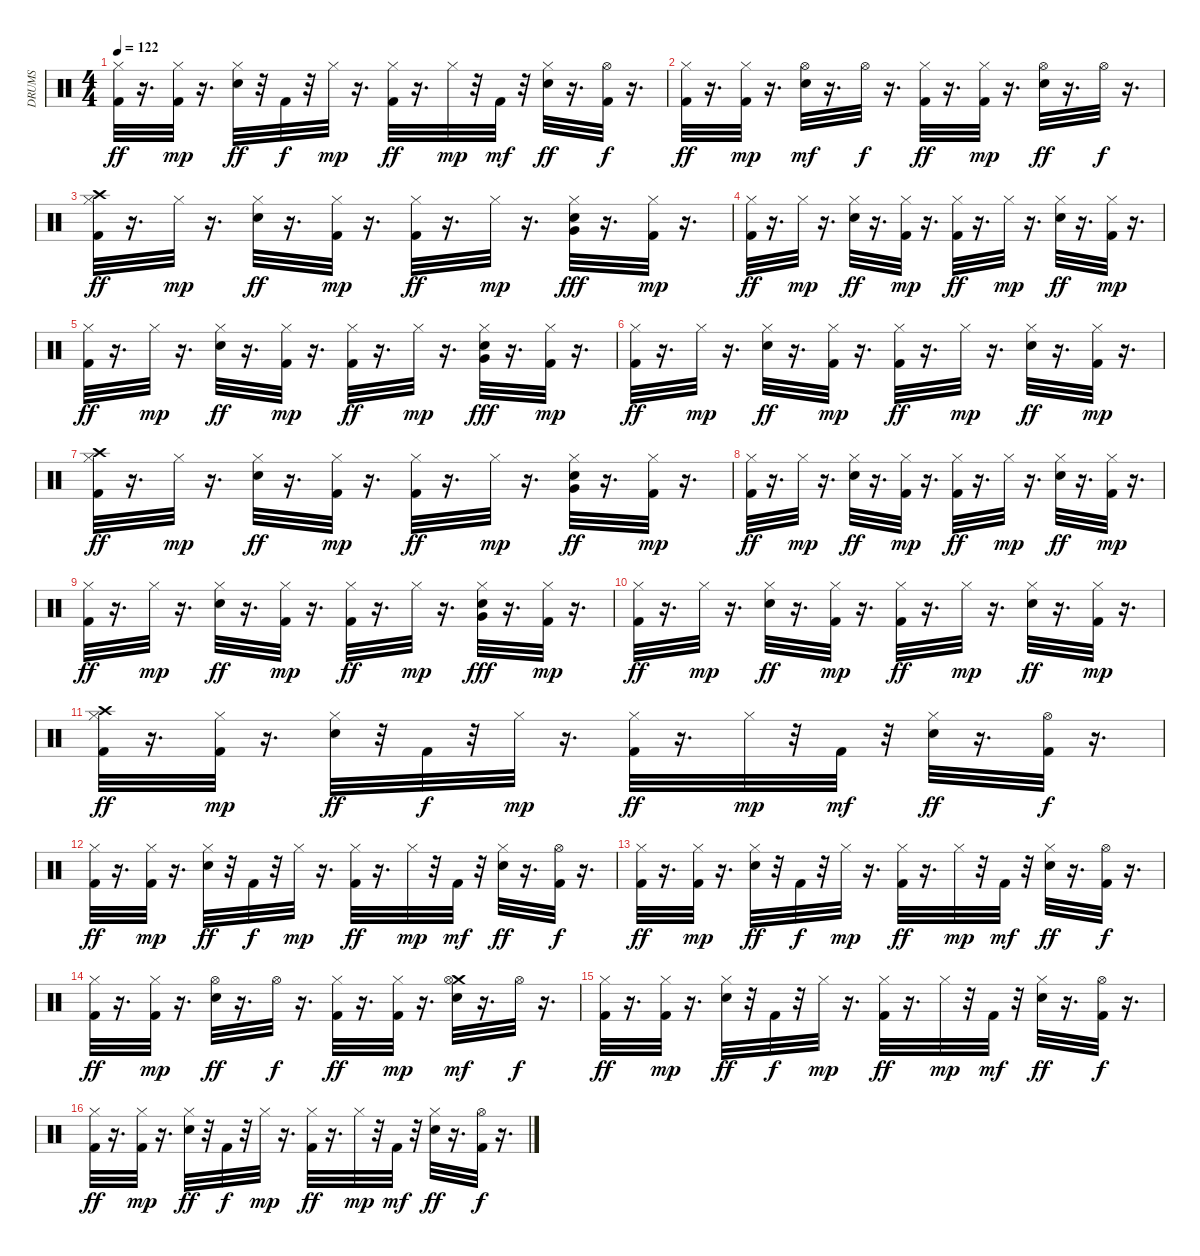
\track ("DRUMS" "DRUMS") {instrument percussion}
\staff {score}
\articulation defaults
\ts (4 4)
\tempo 122
\clef neutral
\ks c
("Hi-Hat (closed)" "Kick (hit) 2").32{dy ff} r.16{d} ("Hi-Hat (closed)" "Kick (hit) 2").32{dy mp} r.16{d} ("Snare (hit) 2" "Hi-Hat (closed)").32{dy ff} r.32 "Kick (hit) 2".32{dy f} r.32 "Hi-Hat (closed)".32{dy mp} r.16{d} ("Hi-Hat (closed)" "Kick (hit) 2").32{dy ff} r.16{d} "Hi-Hat (closed)".32{dy mp} r.32 "Kick (hit) 2".32{dy mf} r.32 ("Hi-Hat (closed)" "Snare (hit) 2").32{dy ff} r.16{d} ("Kick (hit) 2" "Hi-Hat (open)").32{dy f} r.16{d} |
("Hi-Hat (closed)" "Kick (hit) 2").32{dy ff} r.16{d} ("Kick (hit) 2" "Hi-Hat (closed)").32{dy mp} r.16{d} ("Snare (hit) 2" "Hi-Hat (open)").32{dy mf} r.16{d} "Hi-Hat (open)".32{dy f} r.16{d} ("Hi-Hat (closed)" "Kick (hit) 2").32{dy ff} r.16{d} ("Kick (hit) 2" "Hi-Hat (closed)").32{dy mp} r.16{d} ("Hi-Hat (open)" "Snare (hit) 2").32{dy ff} r.16{d} "Hi-Hat (open)".32{dy f} r.16{d} |
("Kick (hit) 2" "Crash high (hit)" "Hi-Hat (closed)").32{dy ff} r.16{d} "Hi-Hat (closed)".32{dy mp} r.16{d} ("Snare (hit) 2" "Hi-Hat (closed)").32{dy ff} r.16{d} ("Hi-Hat (closed)" "Kick (hit) 2").32{dy mp} r.16{d} ("Hi-Hat (closed)" "Kick (hit) 2").32{dy ff} r.16{d} "Hi-Hat (closed)".32{dy mp} r.16{d} ("Snare (hit) 2" "Very Low Tom (hit)" "Hi-Hat (closed)").32{dy fff} r.16{d} ("Hi-Hat (closed)" "Kick (hit) 2").32{dy mp} r.16{d} |
("Hi-Hat (closed)" "Kick (hit) 2").32{dy ff} r.16{d} "Hi-Hat (closed)".32{dy mp} r.16{d} ("Hi-Hat (closed)" "Snare (hit) 2").32{dy ff} r.16{d} ("Hi-Hat (closed)" "Kick (hit) 2").32{dy mp} r.16{d} ("Kick (hit) 2" "Hi-Hat (closed)").32{dy ff} r.16{d} "Hi-Hat (closed)".32{dy mp} r.16{d} ("Snare (hit) 2" "Hi-Hat (closed)").32{dy ff} r.16{d} ("Hi-Hat (closed)" "Kick (hit) 2").32{dy mp} r.16{d} |
("Hi-Hat (closed)" "Kick (hit) 2").32{dy ff} r.16{d} "Hi-Hat (closed)".32{dy mp} r.16{d} ("Hi-Hat (closed)" "Snare (hit) 2").32{dy ff} r.16{d} ("Hi-Hat (closed)" "Kick (hit) 2").32{dy mp} r.16{d} ("Hi-Hat (closed)" "Kick (hit) 2").32{dy ff} r.16{d} "Hi-Hat (closed)".32{dy mp} r.16{d} ("Snare (hit) 2" "Hi-Hat (closed)" "Very Low Tom (hit)").32{dy fff} r.16{d} ("Hi-Hat (closed)" "Kick (hit) 2").32{dy mp} r.16{d} |
("Kick (hit) 2" "Hi-Hat (closed)").32{dy ff} r.16{d} "Hi-Hat (closed)".32{dy mp} r.16{d} ("Hi-Hat (closed)" "Snare (hit) 2").32{dy ff} r.16{d} ("Hi-Hat (closed)" "Kick (hit) 2").32{dy mp} r.16{d} ("Hi-Hat (closed)" "Kick (hit) 2").32{dy ff} r.16{d} "Hi-Hat (closed)".32{dy mp} r.16{d} ("Hi-Hat (closed)" "Snare (hit) 2").32{dy ff} r.16{d} ("Kick (hit) 2" "Hi-Hat (closed)").32{dy mp} r.16{d} |
("Crash high (hit)" "Hi-Hat (closed)" "Kick (hit) 2").32{dy ff} r.16{d} "Hi-Hat (closed)".32{dy mp} r.16{d} ("Snare (hit) 2" "Hi-Hat (closed)").32{dy ff} r.16{d} ("Hi-Hat (closed)" "Kick (hit) 2").32{dy mp} r.16{d} ("Kick (hit) 2" "Hi-Hat (closed)").32{dy ff} r.16{d} "Hi-Hat (closed)".32{dy mp} r.16{d} ("Very Low Tom (hit)" "Hi-Hat (closed)" "Snare (hit) 2").32{dy ff} r.16{d} ("Kick (hit) 2" "Hi-Hat (closed)").32{dy mp} r.16{d} |
("Hi-Hat (closed)" "Kick (hit) 2").32{dy ff} r.16{d} "Hi-Hat (closed)".32{dy mp} r.16{d} ("Hi-Hat (closed)" "Snare (hit) 2").32{dy ff} r.16{d} ("Kick (hit) 2" "Hi-Hat (closed)").32{dy mp} r.16{d} ("Hi-Hat (closed)" "Kick (hit) 2").32{dy ff} r.16{d} "Hi-Hat (closed)".32{dy mp} r.16{d} ("Snare (hit) 2" "Hi-Hat (closed)").32{dy ff} r.16{d} ("Hi-Hat (closed)" "Kick (hit) 2").32{dy mp} r.16{d} |
("Hi-Hat (closed)" "Kick (hit) 2").32{dy ff} r.16{d} "Hi-Hat (closed)".32{dy mp} r.16{d} ("Snare (hit) 2" "Hi-Hat (closed)").32{dy ff} r.16{d} ("Kick (hit) 2" "Hi-Hat (closed)").32{dy mp} r.16{d} ("Hi-Hat (closed)" "Kick (hit) 2").32{dy ff} r.16{d} "Hi-Hat (closed)".32{dy mp} r.16{d} ("Snare (hit) 2" "Hi-Hat (closed)" "Very Low Tom (hit)").32{dy fff} r.16{d} ("Kick (hit) 2" "Hi-Hat (closed)").32{dy mp} r.16{d} |
("Kick (hit) 2" "Hi-Hat (closed)").32{dy ff} r.16{d} "Hi-Hat (closed)".32{dy mp} r.16{d} ("Hi-Hat (closed)" "Snare (hit) 2").32{dy ff} r.16{d} ("Hi-Hat (closed)" "Kick (hit) 2").32{dy mp} r.16{d} ("Kick (hit) 2" "Hi-Hat (closed)").32{dy ff} r.16{d} "Hi-Hat (closed)".32{dy mp} r.16{d} ("Snare (hit) 2" "Hi-Hat (closed)").32{dy ff} r.16{d} ("Kick (hit) 2" "Hi-Hat (closed)").32{dy mp} r.16{d} |
("Hi-Hat (closed)" "Kick (hit) 2" "Crash high (hit)").32{dy ff} r.16{d} ("Kick (hit) 2" "Hi-Hat (closed)").32{dy mp} r.16{d} ("Snare (hit) 2" "Hi-Hat (closed)").32{dy ff} r.32 "Kick (hit) 2".32{dy f} r.32 "Hi-Hat (closed)".32{dy mp} r.16{d} ("Hi-Hat (closed)" "Kick (hit) 2").32{dy ff} r.16{d} "Hi-Hat (closed)".32{dy mp} r.32 "Kick (hit) 2".32{dy mf} r.32 ("Snare (hit) 2" "Hi-Hat (closed)").32{dy ff} r.16{d} ("Hi-Hat (open)" "Kick (hit) 2").32{dy f} r.16{d} |
("Hi-Hat (closed)" "Kick (hit) 2").32{dy ff} r.16{d} ("Kick (hit) 2" "Hi-Hat (closed)").32{dy mp} r.16{d} ("Hi-Hat (closed)" "Snare (hit) 2").32{dy ff} r.32 "Kick (hit) 2".32{dy f} r.32 "Hi-Hat (closed)".32{dy mp} r.16{d} ("Hi-Hat (closed)" "Kick (hit) 2").32{dy ff} r.16{d} "Hi-Hat (closed)".32{dy mp} r.32 "Kick (hit) 2".32{dy mf} r.32 ("Hi-Hat (closed)" "Snare (hit) 2").32{dy ff} r.16{d} ("Hi-Hat (open)" "Kick (hit) 2").32{dy f} r.16{d} |
("Kick (hit) 2" "Hi-Hat (closed)").32{dy ff} r.16{d} ("Kick (hit) 2" "Hi-Hat (closed)").32{dy mp} r.16{d} ("Snare (hit) 2" "Hi-Hat (closed)").32{dy ff} r.32 "Kick (hit) 2".32{dy f} r.32 "Hi-Hat (closed)".32{dy mp} r.16{d} ("Kick (hit) 2" "Hi-Hat (closed)").32{dy ff} r.16{d} "Hi-Hat (closed)".32{dy mp} r.32 "Kick (hit) 2".32{dy mf} r.32 ("Hi-Hat (closed)" "Snare (hit) 2").32{dy ff} r.16{d} ("Hi-Hat (open)" "Kick (hit) 2").32{dy f} r.16{d} |
("Hi-Hat (closed)" "Kick (hit) 2").32{dy ff} r.16{d} ("Kick (hit) 2" "Hi-Hat (closed)").32{dy mp} r.16{d} ("Hi-Hat (open)" "Snare (hit) 2").32{dy ff} r.16{d} "Hi-Hat (open)".32{dy f} r.16{d} ("Kick (hit) 2" "Hi-Hat (closed)").32{dy ff} r.16{d} ("Kick (hit) 2" "Hi-Hat (closed)").32{dy mp} r.16{d} ("Snare (hit) 2" "Crash medium (hit)" "Hi-Hat (open)").32{dy mf} r.16{d} "Hi-Hat (open)".32{dy f} r.16{d} |
("Kick (hit) 2" "Hi-Hat (closed)").32{dy ff} r.16{d} ("Kick (hit) 2" "Hi-Hat (closed)").32{dy mp} r.16{d} ("Hi-Hat (closed)" "Snare (hit) 2").32{dy ff} r.32 "Kick (hit) 2".32{dy f} r.32 "Hi-Hat (closed)".32{dy mp} r.16{d} ("Kick (hit) 2" "Hi-Hat (closed)").32{dy ff} r.16{d} "Hi-Hat (closed)".32{dy mp} r.32 "Kick (hit) 2".32{dy mf} r.32 ("Hi-Hat (closed)" "Snare (hit) 2").32{dy ff} r.16{d} ("Kick (hit) 2" "Hi-Hat (open)").32{dy f} r.16{d} |
("Kick (hit) 2" "Hi-Hat (closed)").32{dy ff} r.16{d} ("Hi-Hat (closed)" "Kick (hit) 2").32{dy mp} r.16{d} ("Hi-Hat (closed)" "Snare (hit) 2").32{dy ff} r.32 "Kick (hit) 2".32{dy f} r.32 "Hi-Hat (closed)".32{dy mp} r.16{d} ("Hi-Hat (closed)" "Kick (hit) 2").32{dy ff} r.16{d} "Hi-Hat (closed)".32{dy mp} r.32 "Kick (hit) 2".32{dy mf} r.32 ("Hi-Hat (closed)" "Snare (hit) 2").32{dy ff} r.16{d} ("Kick (hit) 2" "Hi-Hat (open)").32{dy f} r.16{d}
